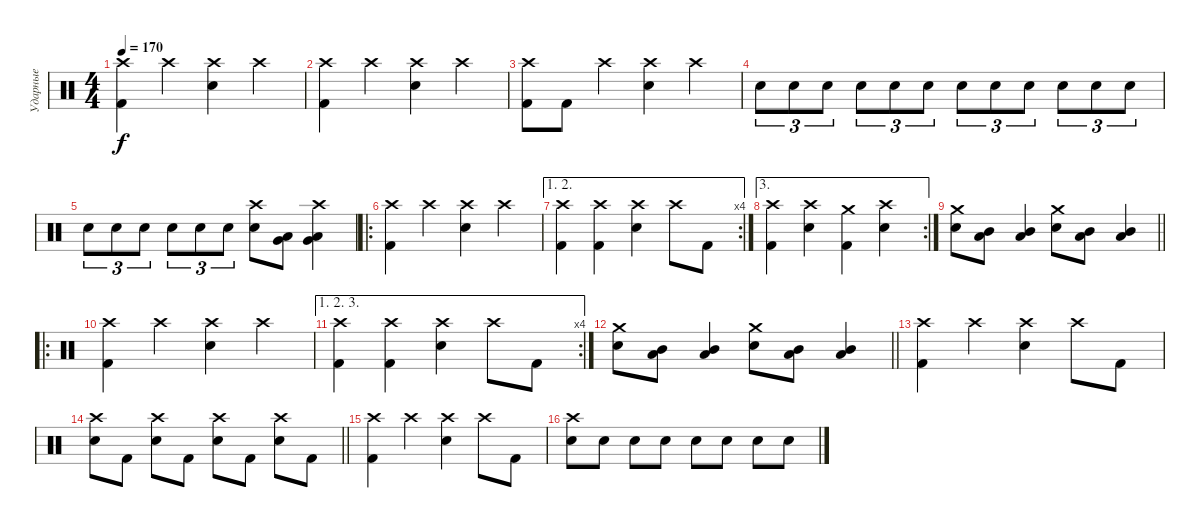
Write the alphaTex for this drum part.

\track ("Ударные" "Ударные") {instrument percussion}
\staff {score}
\articulation defaults
\ts (4 4)
\tempo 170
\clef neutral
\ks c
("Crash high (hit)" "Kick (hit) 2").4{dy f} "Crash high (hit)".4 ("Crash high (hit)" "Snare (hit) 2").4 "Crash high (hit)".4 |
("Crash high (hit)" "Kick (hit) 2").4 "Crash high (hit)".4 ("Crash high (hit)" "Snare (hit) 2").4 "Crash high (hit)".4 |
("Crash high (hit)" "Kick (hit) 2").8 "Kick (hit) 2".8 "Crash high (hit)".4 ("Crash high (hit)" "Snare (hit) 2").4 "Crash high (hit)".4 |
"Snare (hit) 2".8{tu (3 2)} "Snare (hit) 2".8{tu (3 2)} "Snare (hit) 2".8{tu (3 2)} "Snare (hit) 2".8{tu (3 2)} "Snare (hit) 2".8{tu (3 2)} "Snare (hit) 2".8{tu (3 2)} "Snare (hit) 2".8{tu (3 2)} "Snare (hit) 2".8{tu (3 2)} "Snare (hit) 2".8{tu (3 2)} "Snare (hit) 2".8{tu (3 2)} "Snare (hit) 2".8{tu (3 2)} "Snare (hit) 2".8{tu (3 2)} |
"Snare (hit) 2".8{tu (3 2)} "Snare (hit) 2".8{tu (3 2)} "Snare (hit) 2".8{tu (3 2)} "Snare (hit) 2".8{tu (3 2)} "Snare (hit) 2".8{tu (3 2)} "Snare (hit) 2".8{tu (3 2)} ("Crash high (hit)" "Snare (hit) 2").8 ("Very Low Tom (hit)" "Low Floor Tom (hit)").8 ("Crash high (hit)" "Very Low Tom (hit)" "Low Floor Tom (hit)").4 |
\ro
("Crash high (hit)" "Kick (hit) 2").4 "Crash high (hit)".4 ("Crash high (hit)" "Snare (hit) 2").4 "Crash high (hit)".4 |
\ae (1 2)
\rc 4
("Crash high (hit)" "Kick (hit) 2").4 ("Crash high (hit)" "Kick (hit) 2").4 ("Crash high (hit)" "Snare (hit) 2").4 "Crash high (hit)".8 "Kick (hit) 2".8 |
\ae 3
\rc 2
("Crash high (hit)" "Kick (hit) 2").4 ("Crash high (hit)" "Snare (hit) 2").4 ("Crash medium (hit)" "Kick (hit) 2").4 ("Crash high (hit)" "Snare (hit) 2").4 |
\barLineRight lightlight
("Crash medium (hit)" "Snare (hit) 2").8 ("Mid Tom (hit)" "Low Floor Tom (hit)").8 ("Mid Tom (hit)" "Low Floor Tom (hit)").4 ("Crash medium (hit)" "Snare (hit) 2").8 ("Mid Tom (hit)" "Low Floor Tom (hit)").8 ("Mid Tom (hit)" "Low Floor Tom (hit)").4 |
\ro
("Crash high (hit)" "Kick (hit) 2").4 "Crash high (hit)".4 ("Crash high (hit)" "Snare (hit) 2").4 "Crash high (hit)".4 |
\ae (1 2 3)
\rc 4
("Crash high (hit)" "Kick (hit) 2").4 ("Crash high (hit)" "Kick (hit) 2").4 ("Crash high (hit)" "Snare (hit) 2").4 "Crash high (hit)".8 "Kick (hit) 2".8 |
\barLineRight lightlight
("Crash medium (hit)" "Snare (hit) 2").8 ("Mid Tom (hit)" "Low Floor Tom (hit)").8 ("Mid Tom (hit)" "Low Floor Tom (hit)").4 ("Crash medium (hit)" "Snare (hit) 2").8 ("Mid Tom (hit)" "Low Floor Tom (hit)").8 ("Mid Tom (hit)" "Low Floor Tom (hit)").4 |
("Crash high (hit)" "Kick (hit) 2").4 "Crash high (hit)".4 ("Crash high (hit)" "Snare (hit) 2").4 "Crash high (hit)".8 "Kick (hit) 2".8 |
\barLineRight lightlight
("Crash high (hit)" "Snare (hit) 2").8 "Kick (hit) 2".8 ("Crash high (hit)" "Snare (hit) 2").8 "Kick (hit) 2".8 ("Crash high (hit)" "Snare (hit) 2").8 "Kick (hit) 2".8 ("Crash high (hit)" "Snare (hit) 2").8 "Kick (hit) 2".8 |
("Crash high (hit)" "Kick (hit) 2").4 "Crash high (hit)".4 ("Crash high (hit)" "Snare (hit) 2").4 "Crash high (hit)".8 "Kick (hit) 2".8 |
("Crash high (hit)" "Snare (hit) 2").8 "Snare (hit) 2".8 "Snare (hit) 2".8 "Snare (hit) 2".8 "Snare (hit) 2".8 "Snare (hit) 2".8 "Snare (hit) 2".8 "Snare (hit) 2".8
